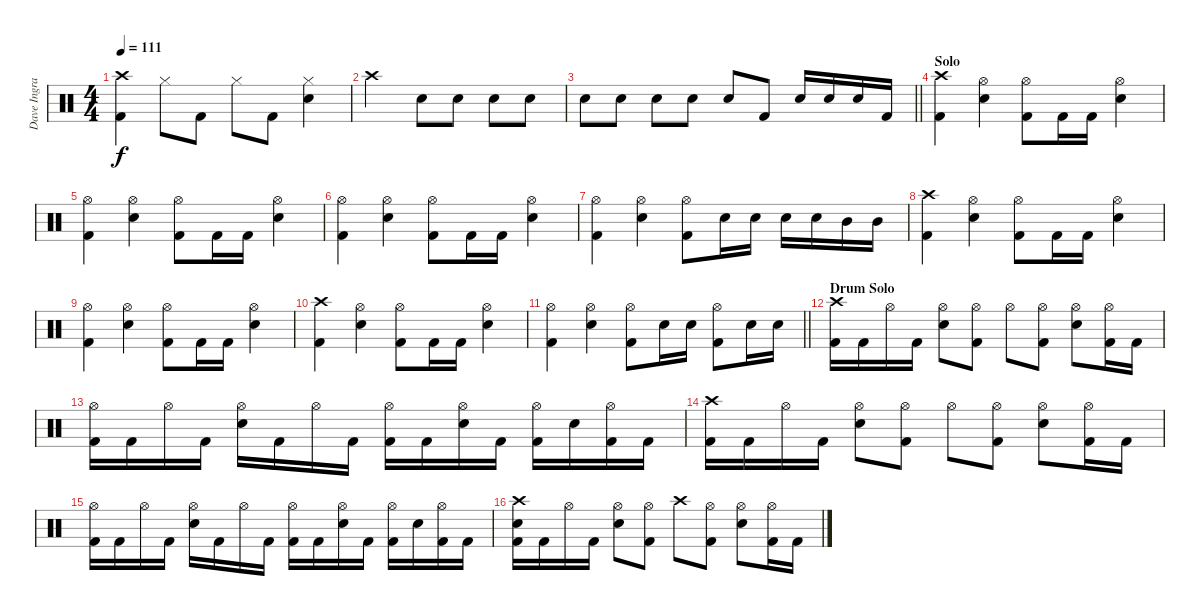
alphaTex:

\track ("Dave Ingraham" "Dave Ingra") {instrument percussion}
\staff {score}
\articulation defaults
\ts (4 4)
\tempo 111
\clef neutral
\ks c
("Crash high (hit)" "Kick (hit) 2").4{dy f} "Hi-Hat (closed)".8 "Kick (hit) 2".8 "Hi-Hat (closed)".8 "Kick (hit) 2".8 ("Hi-Hat (closed)" "Electric Snare (hit)").4 |
"Crash high (hit)".2 "Electric Snare (hit)".8 "Electric Snare (hit)".8 "Electric Snare (hit)".8 "Electric Snare (hit)".8 |
\barLineRight lightlight "Electric Snare (hit)".8 "Electric Snare (hit)".8 "Electric Snare (hit)".8 "Electric Snare (hit)".8 "Electric Snare (hit)".8 "Kick (hit) 2".8 "Electric Snare (hit)".16 "Electric Snare (hit)".16 "Electric Snare (hit)".16 "Kick (hit) 2".16
|
\section ("" "Solo")
("Crash high (hit)" "Kick (hit) 2").4 ("Hi-Hat (open)" "Electric Snare (hit)").4 ("Hi-Hat (open)" "Kick (hit) 2").8 "Kick (hit) 2".16 "Kick (hit) 2".16 ("Hi-Hat (open)" "Electric Snare (hit)").4 |
("Hi-Hat (open)" "Kick (hit) 2").4 ("Hi-Hat (open)" "Electric Snare (hit)").4 ("Hi-Hat (open)" "Kick (hit) 2").8 "Kick (hit) 2".16 "Kick (hit) 2".16 ("Hi-Hat (open)" "Electric Snare (hit)").4 |
("Hi-Hat (open)" "Kick (hit) 2").4 ("Hi-Hat (open)" "Electric Snare (hit)").4 ("Hi-Hat (open)" "Kick (hit) 2").8 "Kick (hit) 2".16 "Kick (hit) 2".16 ("Hi-Hat (open)" "Electric Snare (hit)").4 |
("Hi-Hat (open)" "Kick (hit) 2").4 ("Hi-Hat (open)" "Electric Snare (hit)").4 ("Hi-Hat (open)" "Kick (hit) 2").8 "Electric Snare (hit)".16 "Electric Snare (hit)".16 "Electric Snare (hit)".16 "Electric Snare (hit)".16 "Mid Tom (hit)".16 "Mid Tom (hit)".16 |
("Crash high (hit)" "Kick (hit) 2").4 ("Hi-Hat (open)" "Electric Snare (hit)").4 ("Hi-Hat (open)" "Kick (hit) 2").8 "Kick (hit) 2".16 "Kick (hit) 2".16 ("Hi-Hat (open)" "Electric Snare (hit)").4 |
("Hi-Hat (open)" "Kick (hit) 2").4 ("Hi-Hat (open)" "Electric Snare (hit)").4 ("Hi-Hat (open)" "Kick (hit) 2").8 "Kick (hit) 2".16 "Kick (hit) 2".16 ("Hi-Hat (open)" "Electric Snare (hit)").4 |
("Crash high (hit)" "Kick (hit) 2").4 ("Hi-Hat (open)" "Electric Snare (hit)").4 ("Hi-Hat (open)" "Kick (hit) 2").8 "Kick (hit) 2".16 "Kick (hit) 2".16 ("Hi-Hat (open)" "Electric Snare (hit)").4 |
\barLineRight lightlight
("Hi-Hat (open)" "Kick (hit) 2").4 ("Hi-Hat (open)" "Electric Snare (hit)").4 ("Hi-Hat (open)" "Kick (hit) 2").8 "Electric Snare (hit)".16 "Electric Snare (hit)".16 ("Hi-Hat (open)" "Kick (hit) 2").8 "Electric Snare (hit)".16 "Electric Snare (hit)".16 |
\section ("" "Drum Solo")
("Crash high (hit)" "Kick (hit) 2").16 "Kick (hit) 2".16 "Hi-Hat (open)".16 "Kick (hit) 2".16 ("Hi-Hat (open)" "Electric Snare (hit)").8 ("Hi-Hat (open)" "Kick (hit) 2").8 "Hi-Hat (open)".8 ("Hi-Hat (open)" "Kick (hit) 2").8 ("Hi-Hat (open)" "Electric Snare (hit)").8 ("Hi-Hat (open)" "Kick (hit) 2").16 "Kick (hit) 2".16 |
("Hi-Hat (open)" "Kick (hit) 2").16 "Kick (hit) 2".16 "Hi-Hat (open)".16 "Kick (hit) 2".16 ("Hi-Hat (open)" "Electric Snare (hit)").16 "Kick (hit) 2".16 "Hi-Hat (open)".16 "Kick (hit) 2".16 ("Hi-Hat (open)" "Kick (hit) 2").16 "Kick (hit) 2".16 ("Hi-Hat (open)" "Electric Snare (hit)").16 "Kick (hit) 2".16 ("Hi-Hat (open)" "Kick (hit) 2").16 "Electric Snare (hit)".16 ("Hi-Hat (open)" "Kick (hit) 2").16 "Kick (hit) 2".16 |
("Crash high (hit)" "Kick (hit) 2").16 "Kick (hit) 2".16 "Hi-Hat (open)".16 "Kick (hit) 2".16 ("Hi-Hat (open)" "Electric Snare (hit)").8 ("Hi-Hat (open)" "Kick (hit) 2").8 "Hi-Hat (open)".8 ("Hi-Hat (open)" "Kick (hit) 2").8 ("Hi-Hat (open)" "Electric Snare (hit)").8 ("Hi-Hat (open)" "Kick (hit) 2").16 "Kick (hit) 2".16 |
("Hi-Hat (open)" "Kick (hit) 2").16 "Kick (hit) 2".16 "Hi-Hat (open)".16 "Kick (hit) 2".16 ("Hi-Hat (open)" "Electric Snare (hit)").16 "Kick (hit) 2".16 "Hi-Hat (open)".16 "Kick (hit) 2".16 ("Hi-Hat (open)" "Kick (hit) 2").16 "Kick (hit) 2".16 ("Hi-Hat (open)" "Electric Snare (hit)").16 "Kick (hit) 2".16 ("Hi-Hat (open)" "Kick (hit) 2").16 "Electric Snare (hit)".16 ("Hi-Hat (open)" "Kick (hit) 2").16 "Kick (hit) 2".16 |
("Crash high (hit)" "Electric Snare (hit)" "Kick (hit) 2").16 "Kick (hit) 2".16 "Hi-Hat (open)".16 "Kick (hit) 2".16 ("Hi-Hat (open)" "Electric Snare (hit)").8 ("Hi-Hat (open)" "Kick (hit) 2").8 "Crash high (hit)".8 ("Hi-Hat (open)" "Kick (hit) 2").8 ("Hi-Hat (open)" "Electric Snare (hit)").8 ("Hi-Hat (open)" "Kick (hit) 2").16 "Kick (hit) 2".16
